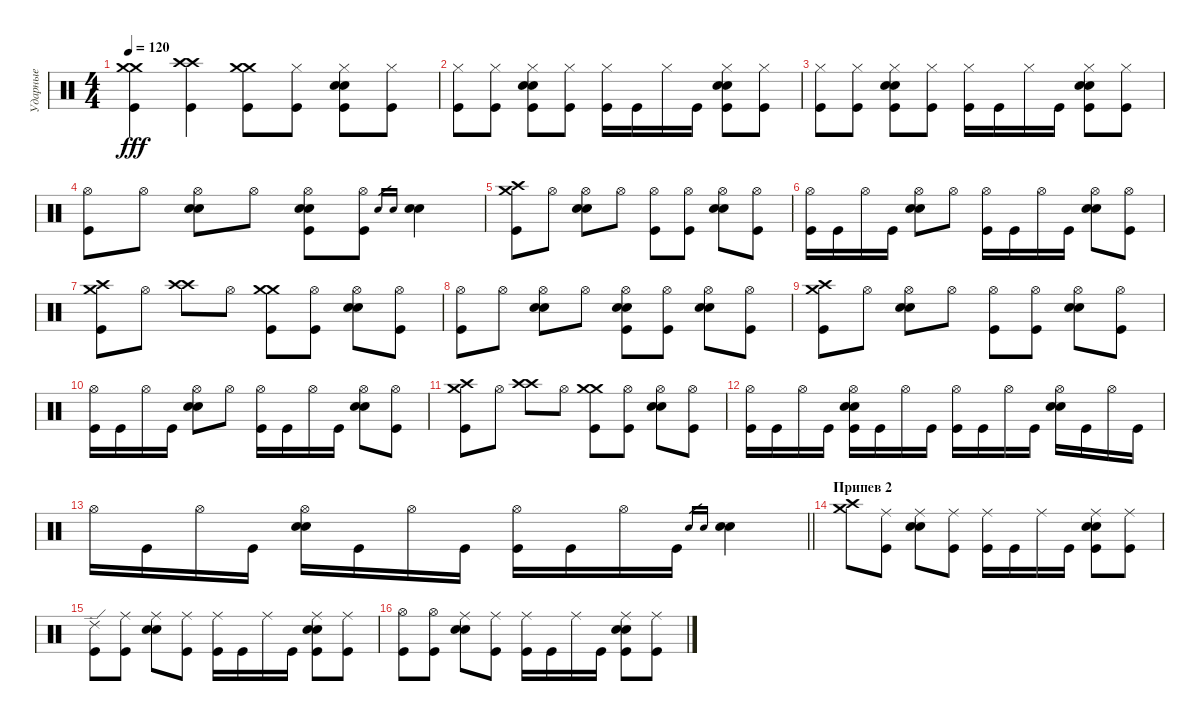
\track ("Ударные" "Ударные") {instrument percussion}
\staff {score}
\articulation defaults
\ts (4 4)
\tempo 120
\clef neutral
\ks c
("Crash medium (hit)" "Crash medium (hit)" "Kick (hit)").4{dy fff} ("Crash high (hit)" "Crash high (hit)" "Kick (hit)").4 ("Crash medium (hit)" "Crash medium (hit)" "Kick (hit)").8 ("Hi-Hat (closed)" "Kick (hit)").8 ("Snare (hit) 2" "Electric Snare (hit)" "Kick (hit)" "Hi-Hat (closed)").8 ("Hi-Hat (closed)" "Kick (hit)").8 |
("Hi-Hat (closed)" "Kick (hit)").8 ("Hi-Hat (closed)" "Kick (hit)").8 ("Snare (hit) 2" "Electric Snare (hit)" "Kick (hit)" "Hi-Hat (closed)").8 ("Kick (hit)" "Hi-Hat (closed)").8 ("Kick (hit)" "Hi-Hat (closed)").16 "Kick (hit)".16 "Hi-Hat (closed)".16 "Kick (hit)".16 ("Snare (hit) 2" "Electric Snare (hit)" "Kick (hit)" "Hi-Hat (closed)").8 ("Kick (hit)" "Hi-Hat (closed)").8 |
("Hi-Hat (closed)" "Kick (hit)").8 ("Hi-Hat (closed)" "Kick (hit)").8 ("Snare (hit) 2" "Electric Snare (hit)" "Kick (hit)" "Hi-Hat (closed)").8 ("Kick (hit)" "Hi-Hat (closed)").8 ("Kick (hit)" "Hi-Hat (closed)").16 "Kick (hit)".16 "Hi-Hat (closed)".16 "Kick (hit)".16 ("Snare (hit) 2" "Electric Snare (hit)" "Kick (hit)" "Hi-Hat (closed)").8 ("Kick (hit)" "Hi-Hat (closed)").8 |
("Hi-Hat (open)" "Kick (hit)").8 "Hi-Hat (open)".8 ("Hi-Hat (open)" "Electric Snare (hit)" "Snare (hit) 2").8 "Hi-Hat (open)".8 ("Hi-Hat (open)" "Snare (hit) 2" "Electric Snare (hit)" "Kick (hit)").8 ("Hi-Hat (open)" "Kick (hit)").8 "Electric Snare (hit)".16{gr} "Snare (hit) 2".16{gr} ("Electric Snare (hit)" "Snare (hit) 2").4 |
("Crash high (hit)" "Crash medium (hit)" "Kick (hit)").8 "Hi-Hat (open)".8 ("Hi-Hat (open)" "Electric Snare (hit)" "Snare (hit) 2").8 "Hi-Hat (open)".8 ("Hi-Hat (open)" "Kick (hit)").8 ("Hi-Hat (open)" "Kick (hit)").8 ("Hi-Hat (open)" "Electric Snare (hit)" "Snare (hit) 2").8 ("Hi-Hat (open)" "Kick (hit)").8 |
("Hi-Hat (open)" "Kick (hit)").16 "Kick (hit)".16 "Hi-Hat (open)".16 "Kick (hit)".16 ("Hi-Hat (open)" "Electric Snare (hit)" "Snare (hit) 2").8 "Hi-Hat (open)".8 ("Hi-Hat (open)" "Kick (hit)").16 "Kick (hit)".16 "Hi-Hat (open)".16 "Kick (hit)".16 ("Hi-Hat (open)" "Electric Snare (hit)" "Snare (hit) 2").8 ("Hi-Hat (open)" "Kick (hit)").8 |
("Crash high (hit)" "Crash medium (hit)" "Kick (hit)").8 "Hi-Hat (open)".8 ("Crash high (hit)" "Crash high (hit)").8 "Hi-Hat (open)".8 ("Crash medium (hit)" "Crash medium (hit)" "Kick (hit)").8 ("Hi-Hat (open)" "Kick (hit)").8 ("Hi-Hat (open)" "Electric Snare (hit)" "Snare (hit) 2").8 ("Hi-Hat (open)" "Kick (hit)").8 |
("Hi-Hat (open)" "Kick (hit)").8 "Hi-Hat (open)".8 ("Hi-Hat (open)" "Electric Snare (hit)" "Snare (hit) 2").8 "Hi-Hat (open)".8 ("Hi-Hat (open)" "Snare (hit) 2" "Electric Snare (hit)" "Kick (hit)").8 ("Hi-Hat (open)" "Kick (hit)").8 ("Hi-Hat (open)" "Electric Snare (hit)" "Snare (hit) 2").8 ("Hi-Hat (open)" "Kick (hit)").8 |
("Crash high (hit)" "Crash medium (hit)" "Kick (hit)").8 "Hi-Hat (open)".8 ("Hi-Hat (open)" "Electric Snare (hit)" "Snare (hit) 2").8 "Hi-Hat (open)".8 ("Hi-Hat (open)" "Kick (hit)").8 ("Hi-Hat (open)" "Kick (hit)").8 ("Hi-Hat (open)" "Electric Snare (hit)" "Snare (hit) 2").8 ("Hi-Hat (open)" "Kick (hit)").8 |
("Hi-Hat (open)" "Kick (hit)").16 "Kick (hit)".16 "Hi-Hat (open)".16 "Kick (hit)".16 ("Hi-Hat (open)" "Electric Snare (hit)" "Snare (hit) 2").8 "Hi-Hat (open)".8 ("Hi-Hat (open)" "Kick (hit)").16 "Kick (hit)".16 "Hi-Hat (open)".16 "Kick (hit)".16 ("Hi-Hat (open)" "Electric Snare (hit)" "Snare (hit) 2").8 ("Hi-Hat (open)" "Kick (hit)").8 |
("Crash high (hit)" "Crash medium (hit)" "Kick (hit)").8 "Hi-Hat (open)".8 ("Crash high (hit)" "Crash high (hit)").8 "Hi-Hat (open)".8 ("Crash medium (hit)" "Crash medium (hit)" "Kick (hit)").8 ("Hi-Hat (open)" "Kick (hit)").8 ("Hi-Hat (open)" "Electric Snare (hit)" "Snare (hit) 2").8 ("Hi-Hat (open)" "Kick (hit)").8 |
("Hi-Hat (open)" "Kick (hit)").16 "Kick (hit)".16 "Hi-Hat (open)".16 "Kick (hit)".16 ("Hi-Hat (open)" "Electric Snare (hit)" "Snare (hit) 2" "Kick (hit)").16 "Kick (hit)".16 "Hi-Hat (open)".16 "Kick (hit)".16 ("Hi-Hat (open)" "Kick (hit)").16 "Kick (hit)".16 "Hi-Hat (open)".16 "Kick (hit)".16 ("Hi-Hat (open)" "Snare (hit) 2" "Electric Snare (hit)").16 "Kick (hit)".16 "Hi-Hat (open)".16 "Kick (hit)".16 |
\barLineRight lightlight "Hi-Hat (open)".16 "Kick (hit)".16 "Hi-Hat (open)".16 "Kick (hit)".16
("Hi-Hat (open)" "Electric Snare (hit)" "Snare (hit) 2").16 "Kick (hit)".16 "Hi-Hat (open)".16 "Kick (hit)".16 ("Hi-Hat (open)" "Kick (hit)").16 "Kick (hit)".16 "Hi-Hat (open)".16 "Kick (hit)".16 "Snare (hit) 2".16{gr} "Snare (hit) 2".16{gr} ("Snare (hit) 2" "Snare (hit) 2").4 |
\section ("" "Припев 2")
("Crash high (hit)" "Crash medium (hit)").8 ("Ride (middle)" "Kick (hit)").8 ("Ride (middle)" "Snare (hit) 2" "Electric Snare (hit)").8 ("Ride (middle)" "Kick (hit)").8 ("Ride (middle)" "Kick (hit)").16 "Kick (hit)".16 "Ride (middle)".16 "Kick (hit)".16 ("Electric Snare (hit)" "Snare (hit) 2" "Ride (middle)" "Kick (hit)").8 ("Ride (middle)" "Kick (hit)").8 |
("Ride (edge) 2" "Kick (hit)").8 ("Ride (middle)" "Kick (hit)").8 ("Ride (middle)" "Snare (hit) 2" "Electric Snare (hit)").8 ("Ride (middle)" "Kick (hit)").8 ("Ride (middle)" "Kick (hit)").16 "Kick (hit)".16 "Ride (middle)".16 "Kick (hit)".16 ("Electric Snare (hit)" "Snare (hit) 2" "Ride (middle)" "Kick (hit)").8 ("Ride (middle)" "Kick (hit)").8 |
("Hi-Hat (open)" "Kick (hit)").8 ("Hi-Hat (open)" "Kick (hit)").8 ("Ride (middle)" "Snare (hit) 2" "Electric Snare (hit)").8 ("Ride (middle)" "Kick (hit)").8 ("Ride (middle)" "Kick (hit)").16 "Kick (hit)".16 "Ride (middle)".16 "Kick (hit)".16 ("Electric Snare (hit)" "Snare (hit) 2" "Ride (middle)" "Kick (hit)").8 ("Ride (middle)" "Kick (hit)").8
